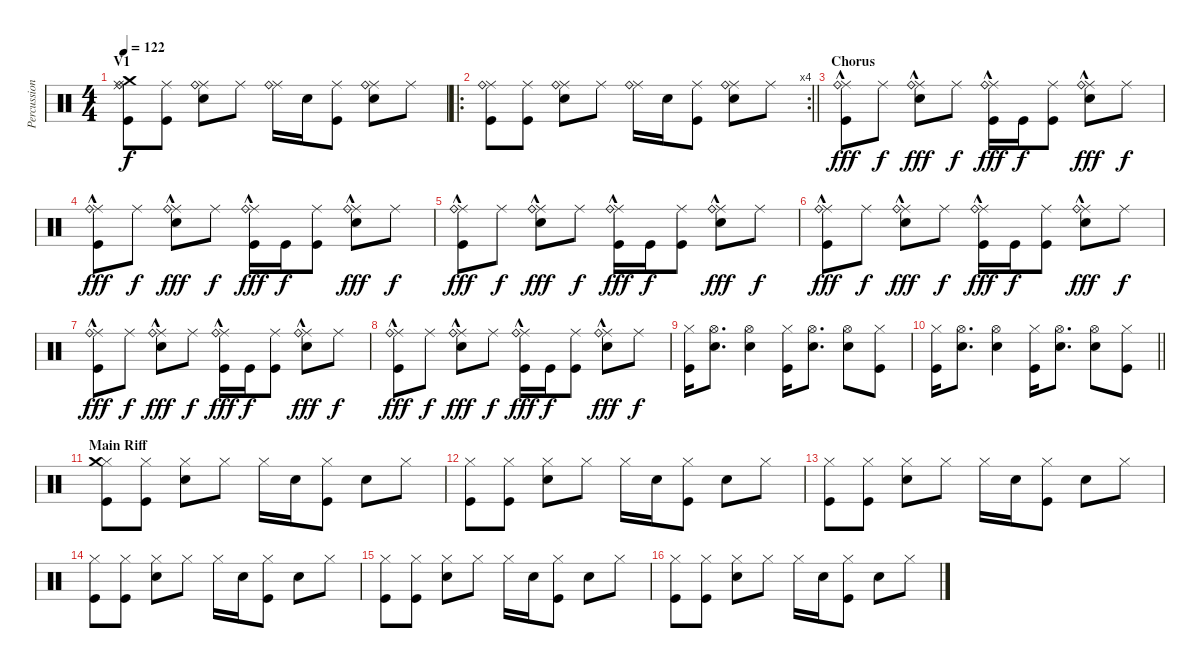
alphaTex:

\track ("Percussion" "Percussion") {instrument percussion}
\staff {score}
\articulation defaults
\ts (4 4)
\section ("" "V1")
\tempo 122
\clef neutral
\ks c
("Ride (middle)" "Ride (bell)" "Crash medium (hit)" "Kick (hit)").8{dy f} ("Ride (middle)" "Kick (hit)").8 ("Ride (middle)" "Ride (bell)" "Snare (hit) 2").8 "Ride (middle)".8 ("Ride (middle)" "Ride (bell)").16 "Snare (hit) 2".16 ("Ride (middle)" "Kick (hit)").8 ("Ride (middle)" "Ride (bell)" "Snare (hit) 2").8 "Ride (middle)".8 |
\ro
\rc 4
\barLineRight lightlight
("Ride (middle)" "Ride (bell)" "Kick (hit)").8 ("Ride (middle)" "Kick (hit)").8 ("Ride (middle)" "Ride (bell)" "Snare (hit) 2").8 "Ride (middle)".8 ("Ride (middle)" "Ride (bell)").16 "Snare (hit) 2".16 ("Ride (middle)" "Kick (hit)").8 ("Ride (middle)" "Ride (bell)" "Snare (hit) 2").8 "Ride (middle)".8 |
\section ("" "Chorus")
("Ride (middle)" "Ride (bell)"{hac} "Kick (hit)").8{dy fff} "Ride (middle)".8{dy f} ("Ride (middle)" "Ride (bell)"{hac} "Snare (hit) 2").8{dy fff} "Ride (middle)".8{dy f} ("Ride (middle)" "Ride (bell)"{hac} "Kick (hit)").16{dy fff} "Kick (hit)".16{dy f} ("Ride (middle)" "Kick (hit)").8 ("Ride (middle)" "Ride (bell)"{hac} "Snare (hit) 2").8{dy fff} "Ride (middle)".8{dy f} |
("Ride (middle)" "Ride (bell)"{hac} "Kick (hit)").8{dy fff} "Ride (middle)".8{dy f} ("Ride (middle)" "Ride (bell)"{hac} "Snare (hit) 2").8{dy fff} "Ride (middle)".8{dy f} ("Ride (middle)" "Ride (bell)"{hac} "Kick (hit)").16{dy fff} "Kick (hit)".16{dy f} ("Ride (middle)" "Kick (hit)").8 ("Ride (middle)" "Ride (bell)"{hac} "Snare (hit) 2").8{dy fff} "Ride (middle)".8{dy f} |
("Ride (middle)" "Ride (bell)"{hac} "Kick (hit)").8{dy fff} "Ride (middle)".8{dy f} ("Ride (middle)" "Ride (bell)"{hac} "Snare (hit) 2").8{dy fff} "Ride (middle)".8{dy f} ("Ride (middle)" "Ride (bell)"{hac} "Kick (hit)").16{dy fff} "Kick (hit)".16{dy f} ("Ride (middle)" "Kick (hit)").8 ("Ride (middle)" "Ride (bell)"{hac} "Snare (hit) 2").8{dy fff} "Ride (middle)".8{dy f} |
("Ride (middle)" "Ride (bell)"{hac} "Kick (hit)").8{dy fff} "Ride (middle)".8{dy f} ("Ride (middle)" "Ride (bell)"{hac} "Snare (hit) 2").8{dy fff} "Ride (middle)".8{dy f} ("Ride (middle)" "Ride (bell)"{hac} "Kick (hit)").16{dy fff} "Kick (hit)".16{dy f} ("Ride (middle)" "Kick (hit)").8 ("Ride (middle)" "Ride (bell)"{hac} "Snare (hit) 2").8{dy fff} "Ride (middle)".8{dy f} |
("Ride (middle)" "Ride (bell)"{hac} "Kick (hit)").8{dy fff} "Ride (middle)".8{dy f} ("Ride (middle)" "Ride (bell)"{hac} "Snare (hit) 2").8{dy fff} "Ride (middle)".8{dy f} ("Ride (middle)" "Ride (bell)"{hac} "Kick (hit)").16{dy fff} "Kick (hit)".16{dy f} ("Ride (middle)" "Kick (hit)").8 ("Ride (middle)" "Ride (bell)"{hac} "Snare (hit) 2").8{dy fff} "Ride (middle)".8{dy f} |
("Ride (middle)" "Ride (bell)"{hac} "Kick (hit)").8{dy fff} "Ride (middle)".8{dy f} ("Ride (middle)" "Ride (bell)"{hac} "Snare (hit) 2").8{dy fff} "Ride (middle)".8{dy f} ("Ride (middle)" "Ride (bell)"{hac} "Kick (hit)").16{dy fff} "Kick (hit)".16{dy f} ("Ride (middle)" "Kick (hit)").8 ("Ride (middle)" "Ride (bell)"{hac} "Snare (hit) 2").8{dy fff} "Ride (middle)".8{dy f} |
("Hi-Hat (closed)" "Kick (hit)").16 ("Hi-Hat (open)" "Snare (hit) 2").8{d} ("Hi-Hat (open)" "Snare (hit) 2").4 ("Hi-Hat (closed)" "Kick (hit)").16 ("Hi-Hat (open)" "Snare (hit) 2").8{d} ("Hi-Hat (open)" "Snare (hit) 2").8 ("Hi-Hat (closed)" "Kick (hit)").8 |
\barLineRight lightlight
("Hi-Hat (closed)" "Kick (hit)").16 ("Hi-Hat (open)" "Snare (hit) 2").8{d} ("Hi-Hat (open)" "Snare (hit) 2").4 ("Hi-Hat (closed)" "Kick (hit)").16 ("Hi-Hat (open)" "Snare (hit) 2").8{d} ("Hi-Hat (open)" "Snare (hit) 2").8 ("Hi-Hat (closed)" "Kick (hit)").8 |
\section ("" "Main Riff")
("Hi-Hat (closed)" "Crash medium (hit)" "Kick (hit)").8 ("Hi-Hat (closed)" "Kick (hit)").8 ("Hi-Hat (closed)" "Snare (hit) 2").8 "Hi-Hat (closed)".8 "Hi-Hat (closed)".16 "Snare (hit) 2".16 ("Hi-Hat (closed)" "Kick (hit)").8 "Snare (hit) 2".8 "Hi-Hat (closed)".8 |
("Hi-Hat (closed)" "Kick (hit)").8 ("Hi-Hat (closed)" "Kick (hit)").8 ("Hi-Hat (closed)" "Snare (hit) 2").8 "Hi-Hat (closed)".8 "Hi-Hat (closed)".16 "Snare (hit) 2".16 ("Hi-Hat (closed)" "Kick (hit)").8 "Snare (hit) 2".8 "Hi-Hat (closed)".8 |
("Hi-Hat (closed)" "Kick (hit)").8 ("Hi-Hat (closed)" "Kick (hit)").8 ("Hi-Hat (closed)" "Snare (hit) 2").8 "Hi-Hat (closed)".8 "Hi-Hat (closed)".16 "Snare (hit) 2".16 ("Hi-Hat (closed)" "Kick (hit)").8 "Snare (hit) 2".8 "Hi-Hat (closed)".8 |
("Hi-Hat (closed)" "Kick (hit)").8 ("Hi-Hat (closed)" "Kick (hit)").8 ("Hi-Hat (closed)" "Snare (hit) 2").8 "Hi-Hat (closed)".8 "Hi-Hat (closed)".16 "Snare (hit) 2".16 ("Hi-Hat (closed)" "Kick (hit)").8 "Snare (hit) 2".8 "Hi-Hat (closed)".8 |
("Hi-Hat (closed)" "Kick (hit)").8 ("Hi-Hat (closed)" "Kick (hit)").8 ("Hi-Hat (closed)" "Snare (hit) 2").8 "Hi-Hat (closed)".8 "Hi-Hat (closed)".16 "Snare (hit) 2".16 ("Hi-Hat (closed)" "Kick (hit)").8 "Snare (hit) 2".8 "Hi-Hat (closed)".8 |
("Hi-Hat (closed)" "Kick (hit)").8 ("Hi-Hat (closed)" "Kick (hit)").8 ("Hi-Hat (closed)" "Snare (hit) 2").8 "Hi-Hat (closed)".8 "Hi-Hat (closed)".16 "Snare (hit) 2".16 ("Hi-Hat (closed)" "Kick (hit)").8 "Snare (hit) 2".8 "Hi-Hat (closed)".8
